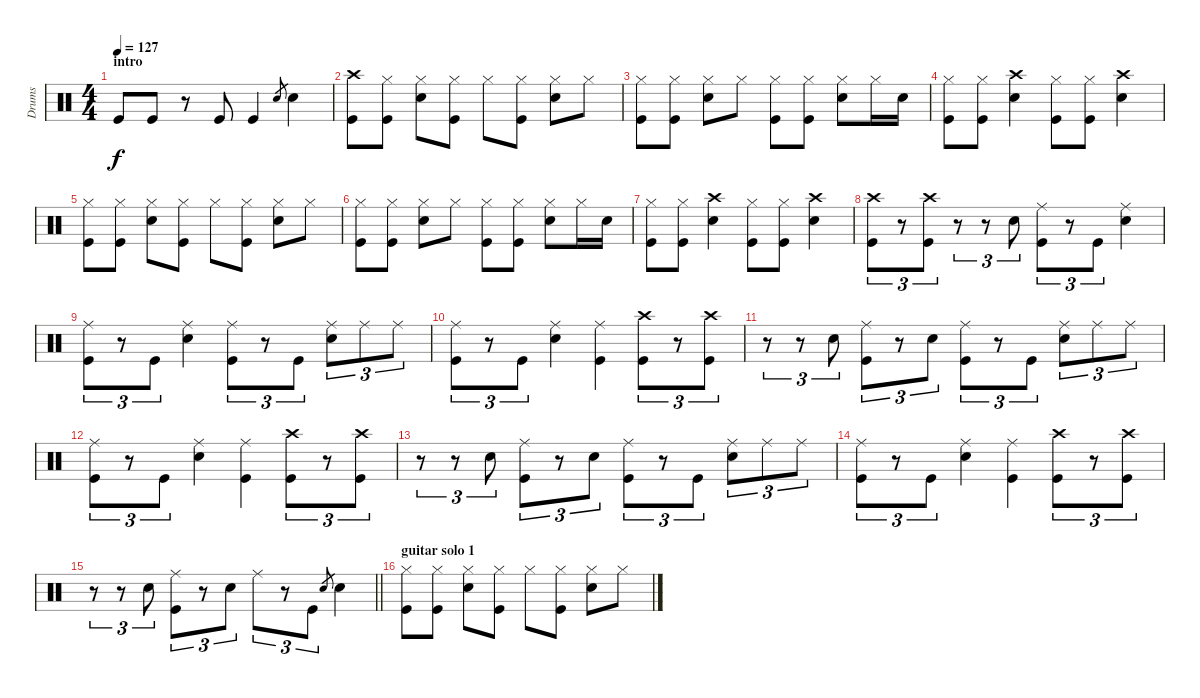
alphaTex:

\track ("Drums" "Drums") {instrument percussion}
\staff {score}
\articulation defaults
\ts (4 4)
\section ("" "intro")
\tempo 127
\clef neutral
\ks c "Kick (hit)".8{dy f} "Kick (hit)".8
r.8 "Kick (hit)".8 "Kick (hit)".4 "Snare (hit) 2".8{gr} "Snare (hit) 2".4 |
("Crash high (hit)" "Kick (hit)").8 ("Hi-Hat (closed)" "Kick (hit)").8 ("Hi-Hat (closed)" "Snare (hit) 2").8 ("Hi-Hat (closed)" "Kick (hit)").8 "Hi-Hat (closed)".8 ("Hi-Hat (closed)" "Kick (hit)").8 ("Hi-Hat (closed)" "Snare (hit) 2").8 "Hi-Hat (closed)".8 |
("Hi-Hat (closed)" "Kick (hit)").8 ("Hi-Hat (closed)" "Kick (hit)").8 ("Hi-Hat (closed)" "Snare (hit) 2").8 "Hi-Hat (closed)".8 ("Hi-Hat (closed)" "Kick (hit)").8 ("Hi-Hat (closed)" "Kick (hit)").8 ("Hi-Hat (closed)" "Snare (hit) 2").8 "Hi-Hat (closed)".16 "Snare (hit) 2".16 |
("Hi-Hat (closed)" "Kick (hit)").8 ("Hi-Hat (closed)" "Kick (hit)").8 ("Crash high (hit)" "Snare (hit) 2").4 ("Hi-Hat (closed)" "Kick (hit)").8 ("Hi-Hat (closed)" "Kick (hit)").8 ("Crash high (hit)" "Snare (hit) 2").4 |
("Hi-Hat (closed)" "Kick (hit)").8 ("Hi-Hat (closed)" "Kick (hit)").8 ("Hi-Hat (closed)" "Snare (hit) 2").8 ("Hi-Hat (closed)" "Kick (hit)").8 "Hi-Hat (closed)".8 ("Hi-Hat (closed)" "Kick (hit)").8 ("Hi-Hat (closed)" "Snare (hit) 2").8 "Hi-Hat (closed)".8 |
("Hi-Hat (closed)" "Kick (hit)").8 ("Hi-Hat (closed)" "Kick (hit)").8 ("Hi-Hat (closed)" "Snare (hit) 2").8 "Hi-Hat (closed)".8 ("Hi-Hat (closed)" "Kick (hit)").8 ("Hi-Hat (closed)" "Kick (hit)").8 ("Hi-Hat (closed)" "Snare (hit) 2").8 "Hi-Hat (closed)".16 "Snare (hit) 2".16 |
("Hi-Hat (closed)" "Kick (hit)").8 ("Hi-Hat (closed)" "Kick (hit)").8 ("Crash high (hit)" "Snare (hit) 2").4 ("Hi-Hat (closed)" "Kick (hit)").8 ("Hi-Hat (closed)" "Kick (hit)").8 ("Crash high (hit)" "Snare (hit) 2").4 |
("Crash high (hit)" "Kick (hit)").8{tu (3 2)} r.8{tu (3 2)} ("Kick (hit)" "Crash high (hit)").8{tu (3 2)} r.8{tu (3 2)} r.8{tu (3 2)} "Snare (hit) 2".8{tu (3 2)} ("Ride (middle)" "Kick (hit)").8{tu (3 2)} r.8{tu (3 2)} "Kick (hit)".8{tu (3 2)} ("Snare (hit) 2" "Ride (middle)").4 |
("Ride (middle)" "Kick (hit)").8{tu (3 2)} r.8{tu (3 2)} "Kick (hit)".8{tu (3 2)} ("Snare (hit) 2" "Ride (middle)").4 ("Ride (middle)" "Kick (hit)").8{tu (3 2)} r.8{tu (3 2)} "Kick (hit)".8{tu (3 2)} ("Snare (hit) 2" "Ride (middle)").8{tu (3 2)} "Ride (middle)".8{tu (3 2)} "Ride (middle)".8{tu (3 2)} |
("Ride (middle)" "Kick (hit)").8{tu (3 2)} r.8{tu (3 2)} "Kick (hit)".8{tu (3 2)} ("Snare (hit) 2" "Ride (middle)").4 ("Ride (middle)" "Kick (hit)").4 ("Crash high (hit)" "Kick (hit)").8{tu (3 2)} r.8{tu (3 2)} ("Crash high (hit)" "Kick (hit)").8{tu (3 2)} |
r.8{tu (3 2)} r.8{tu (3 2)} "Snare (hit) 2".8{tu (3 2)} ("Ride (middle)" "Kick (hit)").8{tu (3 2)} r.8{tu (3 2)} "Snare (hit) 2".8{tu (3 2)} ("Kick (hit)" "Ride (middle)").8{tu (3 2)} r.8{tu (3 2)} "Kick (hit)".8{tu (3 2)} ("Ride (middle)" "Snare (hit) 2").8{tu (3 2)} "Ride (middle)".8{tu (3 2)} "Ride (middle)".8{tu (3 2)} |
("Ride (middle)" "Kick (hit)").8{tu (3 2)} r.8{tu (3 2)} "Kick (hit)".8{tu (3 2)} ("Snare (hit) 2" "Ride (middle)").4 ("Ride (middle)" "Kick (hit)").4 ("Crash high (hit)" "Kick (hit)").8{tu (3 2)} r.8{tu (3 2)} ("Kick (hit)" "Crash high (hit)").8{tu (3 2)} |
r.8{tu (3 2)} r.8{tu (3 2)} "Snare (hit) 2".8{tu (3 2)} ("Kick (hit)" "Ride (middle)").8{tu (3 2)} r.8{tu (3 2)} "Snare (hit) 2".8{tu (3 2)} ("Kick (hit)" "Ride (middle)").8{tu (3 2)} r.8{tu (3 2)} "Kick (hit)".8{tu (3 2)} ("Snare (hit) 2" "Ride (middle)").8{tu (3 2)} "Ride (middle)".8{tu (3 2)} "Ride (middle)".8{tu (3 2)} |
("Ride (middle)" "Kick (hit)").8{tu (3 2)} r.8{tu (3 2)} "Kick (hit)".8{tu (3 2)} ("Snare (hit) 2" "Ride (middle)").4 ("Ride (middle)" "Kick (hit)").4 ("Crash high (hit)" "Kick (hit)").8{tu (3 2)} r.8{tu (3 2)} ("Kick (hit)" "Crash high (hit)").8{tu (3 2)} |
\barLineRight lightlight
r.8{tu (3 2)} r.8{tu (3 2)} "Snare (hit) 2".8{tu (3 2)} ("Ride (middle)" "Kick (hit)").8{tu (3 2)} r.8{tu (3 2)} "Snare (hit) 2".8{tu (3 2)} "Ride (middle)".8{tu (3 2)} r.8{tu (3 2)} "Kick (hit)".8{tu (3 2)} "Snare (hit) 2".8{gr} "Snare (hit) 2".4 |
\section ("" "guitar solo 1")
("Hi-Hat (closed)" "Kick (hit)").8 ("Hi-Hat (closed)" "Kick (hit)").8 ("Hi-Hat (closed)" "Snare (hit) 2").8 ("Hi-Hat (closed)" "Kick (hit)").8 "Hi-Hat (closed)".8 ("Hi-Hat (closed)" "Kick (hit)").8 ("Hi-Hat (closed)" "Snare (hit) 2").8 "Hi-Hat (closed)".8
